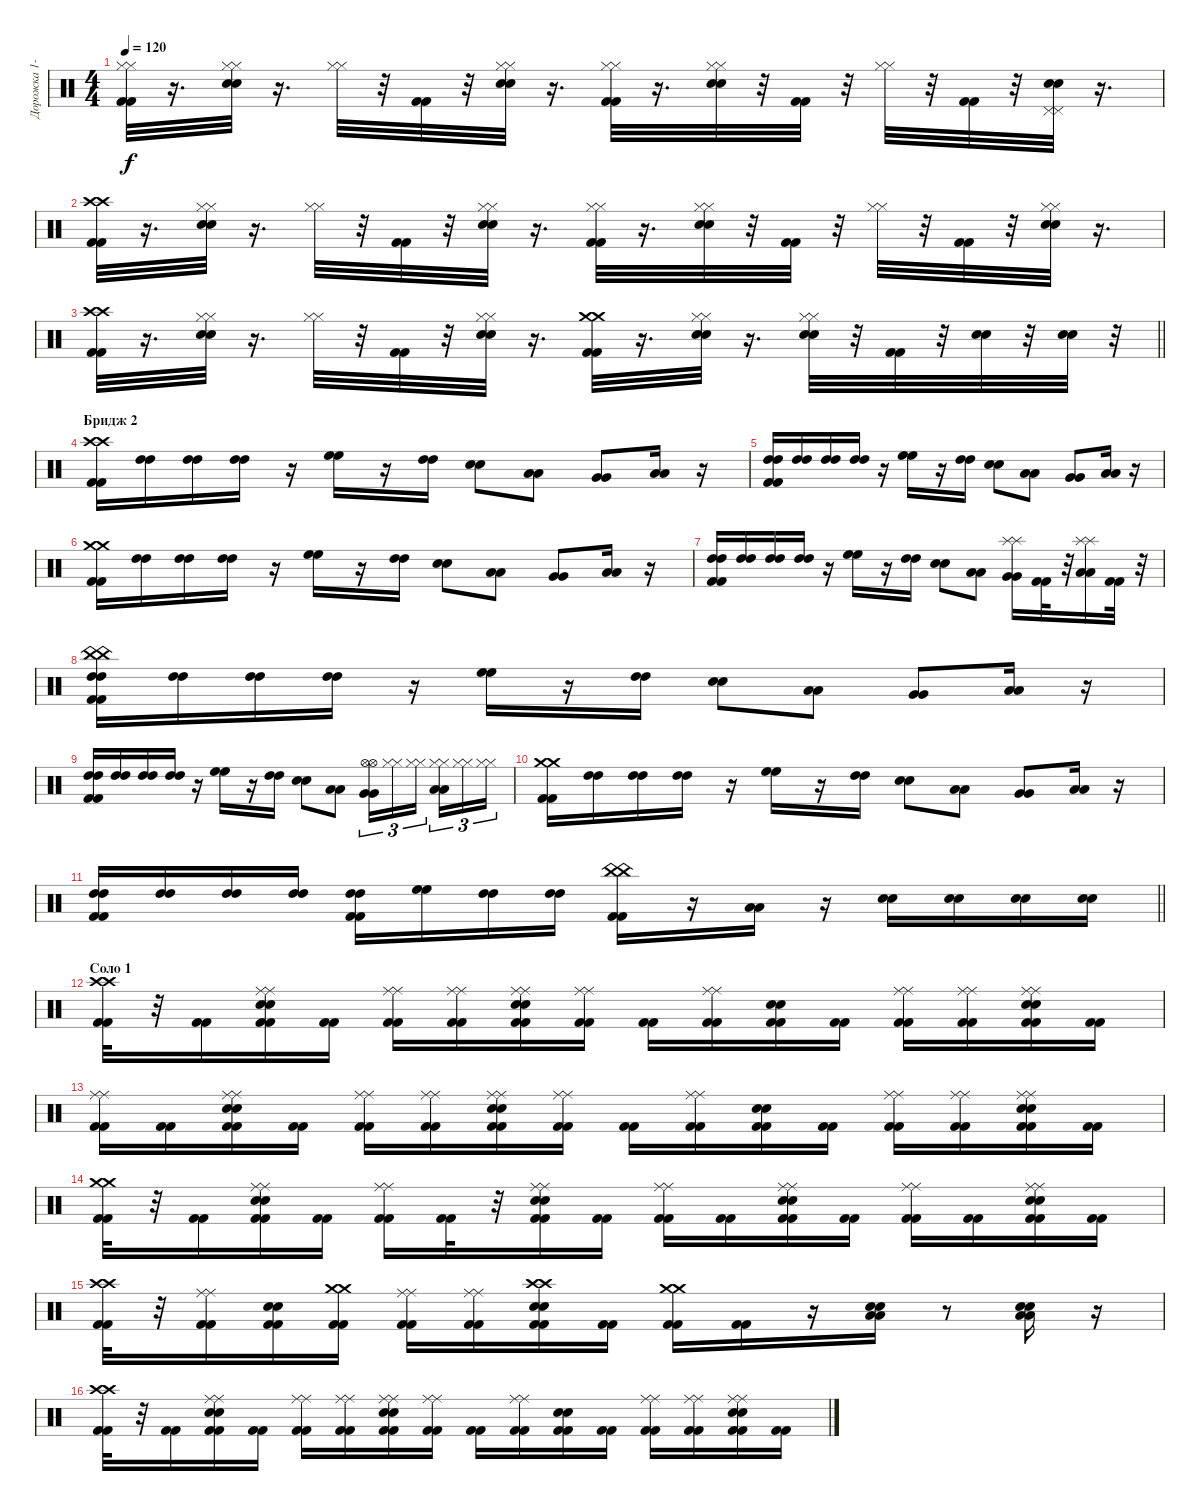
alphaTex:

\track ("Дорожка 1-2" "Дорожка 1-") {instrument percussion}
\staff {score}
\articulation defaults
\ts (4 4)
\tempo 120
\clef neutral
\ks c
("Kick (hit) 2" "Kick (hit) 2" "Hi-Hat (closed)" "Hi-Hat (closed)").32{dy f} r.16{d} ("Electric Snare (hit)" "Electric Snare (hit)" "Hi-Hat (closed)" "Hi-Hat (closed)").32 r.16{d} ("Hi-Hat (closed)" "Hi-Hat (closed)").32 r.32 ("Kick (hit) 2" "Kick (hit) 2").32 r.32 ("Electric Snare (hit)" "Electric Snare (hit)" "Hi-Hat (closed)" "Hi-Hat (closed)").32 r.16{d} ("Kick (hit) 2" "Kick (hit) 2" "Hi-Hat (closed)" "Hi-Hat (closed)").32 r.16{d} ("Electric Snare (hit)" "Electric Snare (hit)" "Hi-Hat (closed)" "Hi-Hat (closed)").32 r.32 ("Kick (hit) 2" "Kick (hit) 2").32 r.32 ("Hi-Hat (closed)" "Hi-Hat (closed)").32 r.32 ("Kick (hit) 2" "Kick (hit) 2").32 r.32 ("Electric Snare (hit)" "Electric Snare (hit)" "Pedal Hi-Hat (hit)" "Pedal Hi-Hat (hit)").32 r.16{d} |
("Kick (hit) 2" "Kick (hit) 2" "Crash high (hit)" "Crash high (hit)").32 r.16{d} ("Electric Snare (hit)" "Electric Snare (hit)" "Hi-Hat (closed)" "Hi-Hat (closed)").32 r.16{d} ("Hi-Hat (closed)" "Hi-Hat (closed)").32 r.32 ("Kick (hit) 2" "Kick (hit) 2").32 r.32 ("Electric Snare (hit)" "Electric Snare (hit)" "Hi-Hat (closed)" "Hi-Hat (closed)").32 r.16{d} ("Kick (hit) 2" "Kick (hit) 2" "Hi-Hat (closed)" "Hi-Hat (closed)").32 r.16{d} ("Electric Snare (hit)" "Electric Snare (hit)" "Hi-Hat (closed)" "Hi-Hat (closed)").32 r.32 ("Kick (hit) 2" "Kick (hit) 2").32 r.32 ("Hi-Hat (closed)" "Hi-Hat (closed)").32 r.32 ("Kick (hit) 2" "Kick (hit) 2").32 r.32 ("Electric Snare (hit)" "Electric Snare (hit)" "Hi-Hat (closed)" "Hi-Hat (closed)").32 r.16{d} |
\barLineRight lightlight
("Kick (hit) 2" "Kick (hit) 2" "Crash high (hit)" "Crash high (hit)").32 r.16{d} ("Electric Snare (hit)" "Electric Snare (hit)" "Hi-Hat (closed)" "Hi-Hat (closed)").32 r.16{d} ("Hi-Hat (closed)" "Hi-Hat (closed)").32 r.32 ("Kick (hit) 2" "Kick (hit) 2").32 r.32 ("Electric Snare (hit)" "Electric Snare (hit)" "Hi-Hat (closed)" "Hi-Hat (closed)").32 r.16{d} ("Kick (hit) 2" "Kick (hit) 2" "Crash medium (hit)" "Crash medium (hit)").32 r.16{d} ("Electric Snare (hit)" "Electric Snare (hit)" "Hi-Hat (closed)" "Hi-Hat (closed)").32 r.16{d} ("Electric Snare (hit)" "Electric Snare (hit)" "Hi-Hat (closed)" "Hi-Hat (closed)").32 r.32 ("Kick (hit) 2" "Kick (hit) 2").32 r.32 ("Electric Snare (hit)" "Electric Snare (hit)").32 r.32 ("Electric Snare (hit)" "Electric Snare (hit)").32 r.32 |
\section ("" "Бридж 2")
("Kick (hit) 2" "Kick (hit) 2" "Crash high (hit)" "Crash high (hit)").16 ("High Tom (hit)" "High Tom (hit)").16 ("High Tom (hit)" "High Tom (hit)").16 ("High Tom (hit)" "High Tom (hit)").16 r.16 ("High Floor Tom (hit)" "High Floor Tom (hit)").16 r.16 ("High Tom (hit)" "High Tom (hit)").16 ("Electric Snare (hit)" "Electric Snare (hit)").8 ("Low Tom (hit)" "Low Tom (hit)").8 ("Very Low Tom (hit)" "Very Low Tom (hit)").8 ("Low Floor Tom (hit)" "Low Floor Tom (hit)").16 r.16 |
("Kick (hit) 2" "Kick (hit) 2" "High Tom (hit)" "High Tom (hit)").16 ("High Tom (hit)" "High Tom (hit)").16 ("High Tom (hit)" "High Tom (hit)").16 ("High Tom (hit)" "High Tom (hit)").16 r.16 ("High Floor Tom (hit)" "High Floor Tom (hit)").16 r.16 ("High Tom (hit)" "High Tom (hit)").16 ("Electric Snare (hit)" "Electric Snare (hit)").8 ("Low Tom (hit)" "Low Tom (hit)").8 ("Very Low Tom (hit)" "Very Low Tom (hit)").8 ("Low Floor Tom (hit)" "Low Floor Tom (hit)").16 r.16 |
("Kick (hit) 2" "Kick (hit) 2" "Crash medium (hit)" "Crash medium (hit)").16 ("High Tom (hit)" "High Tom (hit)").16 ("High Tom (hit)" "High Tom (hit)").16 ("High Tom (hit)" "High Tom (hit)").16 r.16 ("High Floor Tom (hit)" "High Floor Tom (hit)").16 r.16 ("High Tom (hit)" "High Tom (hit)").16 ("Electric Snare (hit)" "Electric Snare (hit)").8 ("Low Tom (hit)" "Low Tom (hit)").8 ("Very Low Tom (hit)" "Very Low Tom (hit)").8 ("Low Floor Tom (hit)" "Low Floor Tom (hit)").16 r.16 |
("Kick (hit) 2" "Kick (hit) 2" "High Tom (hit)" "High Tom (hit)").16 ("High Tom (hit)" "High Tom (hit)").16 ("High Tom (hit)" "High Tom (hit)").16 ("High Tom (hit)" "High Tom (hit)").16 r.16 ("High Floor Tom (hit)" "High Floor Tom (hit)").16 r.16 ("High Tom (hit)" "High Tom (hit)").16 ("Electric Snare (hit)" "Electric Snare (hit)").8 ("Low Tom (hit)" "Low Tom (hit)").8 ("Very Low Tom (hit)" "Very Low Tom (hit)" "Splash (hit)" "Splash (hit)").16 ("Kick (hit) 2" "Kick (hit) 2").32 r.32 ("Low Floor Tom (hit)" "Low Floor Tom (hit)" "Splash (hit)" "Splash (hit)").16 ("Kick (hit) 2" "Kick (hit) 2").32 r.32 |
("Kick (hit) 2" "Kick (hit) 2" "High Tom (hit)" "High Tom (hit)" "China (hit)" "China (hit)").16 ("High Tom (hit)" "High Tom (hit)").16 ("High Tom (hit)" "High Tom (hit)").16 ("High Tom (hit)" "High Tom (hit)").16 r.16 ("High Floor Tom (hit)" "High Floor Tom (hit)").16 r.16 ("High Tom (hit)" "High Tom (hit)").16 ("Electric Snare (hit)" "Electric Snare (hit)").8 ("Low Tom (hit)" "Low Tom (hit)").8 ("Very Low Tom (hit)" "Very Low Tom (hit)").8 ("Low Floor Tom (hit)" "Low Floor Tom (hit)").16 r.16 |
("Kick (hit) 2" "Kick (hit) 2" "High Tom (hit)" "High Tom (hit)").16 ("High Tom (hit)" "High Tom (hit)").16 ("High Tom (hit)" "High Tom (hit)").16 ("High Tom (hit)" "High Tom (hit)").16 r.16 ("High Floor Tom (hit)" "High Floor Tom (hit)").16 r.16 ("High Tom (hit)" "High Tom (hit)").16 ("Electric Snare (hit)" "Electric Snare (hit)").8 ("Low Tom (hit)" "Low Tom (hit)").8 ("Very Low Tom (hit)" "Very Low Tom (hit)" "Hi-Hat (open)" "Hi-Hat (open)").16{tu (3 2)} ("Hi-Hat (closed)" "Hi-Hat (closed)").16{tu (3 2)} ("Hi-Hat (closed)" "Hi-Hat (closed)").16{tu (3 2) beam splitsecondary} ("Low Floor Tom (hit)" "Low Floor Tom (hit)" "Hi-Hat (closed)" "Hi-Hat (closed)").16{tu (3 2)} ("Hi-Hat (closed)" "Hi-Hat (closed)").16{tu (3 2)} ("Hi-Hat (closed)" "Hi-Hat (closed)").16{tu (3 2)} |
("Kick (hit) 2" "Kick (hit) 2" "Crash medium (hit)" "Crash medium (hit)").16 ("High Tom (hit)" "High Tom (hit)").16 ("High Tom (hit)" "High Tom (hit)").16 ("High Tom (hit)" "High Tom (hit)").16 r.16 ("High Floor Tom (hit)" "High Floor Tom (hit)").16 r.16 ("High Tom (hit)" "High Tom (hit)").16 ("Electric Snare (hit)" "Electric Snare (hit)").8 ("Low Tom (hit)" "Low Tom (hit)").8 ("Very Low Tom (hit)" "Very Low Tom (hit)").8 ("Low Floor Tom (hit)" "Low Floor Tom (hit)").16 r.16 |
\barLineRight lightlight
("Kick (hit) 2" "Kick (hit) 2" "High Tom (hit)" "High Tom (hit)").16 ("High Tom (hit)" "High Tom (hit)").16 ("High Tom (hit)" "High Tom (hit)").16 ("High Tom (hit)" "High Tom (hit)").16 ("Kick (hit) 2" "Kick (hit) 2" "High Tom (hit)" "High Tom (hit)").16 ("High Floor Tom (hit)" "High Floor Tom (hit)").16 ("High Tom (hit)" "High Tom (hit)").16 ("High Tom (hit)" "High Tom (hit)").16 ("Kick (hit) 2" "Kick (hit) 2" "China (hit)" "China (hit)").16 r.16 ("Low Tom (hit)" "Low Tom (hit)").16 r.16 ("Electric Snare (hit)" "Electric Snare (hit)").16 ("Electric Snare (hit)" "Electric Snare (hit)").16 ("Electric Snare (hit)" "Electric Snare (hit)").16 ("Electric Snare (hit)" "Electric Snare (hit)").16 |
\section ("" "Соло 1")
("Kick (hit) 2" "Kick (hit) 2" "Crash high (hit)" "Crash high (hit)").32 r.32 ("Kick (hit) 2" "Kick (hit) 2").16 ("Kick (hit) 2" "Kick (hit) 2" "Electric Snare (hit)" "Electric Snare (hit)" "Ride (middle)" "Ride (middle)").16 ("Kick (hit) 2" "Kick (hit) 2").16 ("Kick (hit) 2" "Kick (hit) 2" "Ride (middle)" "Ride (middle)").16 ("Kick (hit) 2" "Kick (hit) 2" "Ride (middle)" "Ride (middle)").16 ("Kick (hit) 2" "Kick (hit) 2" "Electric Snare (hit)" "Electric Snare (hit)" "Ride (middle)" "Ride (middle)").16 ("Kick (hit) 2" "Kick (hit) 2" "Ride (middle)" "Ride (middle)").16 ("Kick (hit) 2" "Kick (hit) 2").16 ("Kick (hit) 2" "Kick (hit) 2" "Ride (middle)" "Ride (middle)").16 ("Kick (hit) 2" "Kick (hit) 2" "Electric Snare (hit)" "Electric Snare (hit)").16 ("Kick (hit) 2" "Kick (hit) 2").16 ("Kick (hit) 2" "Kick (hit) 2" "Ride (middle)" "Ride (middle)").16 ("Kick (hit) 2" "Kick (hit) 2" "Ride (middle)" "Ride (middle)").16 ("Kick (hit) 2" "Kick (hit) 2" "Electric Snare (hit)" "Electric Snare (hit)" "Ride (middle)" "Ride (middle)").16 ("Kick (hit) 2" "Kick (hit) 2").16 |
("Kick (hit) 2" "Kick (hit) 2" "Ride (middle)" "Ride (middle)").16 ("Kick (hit) 2" "Kick (hit) 2").16 ("Kick (hit) 2" "Kick (hit) 2" "Electric Snare (hit)" "Electric Snare (hit)" "Ride (middle)" "Ride (middle)").16 ("Kick (hit) 2" "Kick (hit) 2").16 ("Kick (hit) 2" "Kick (hit) 2" "Ride (middle)" "Ride (middle)").16 ("Kick (hit) 2" "Kick (hit) 2" "Ride (middle)" "Ride (middle)").16 ("Kick (hit) 2" "Kick (hit) 2" "Electric Snare (hit)" "Electric Snare (hit)" "Ride (middle)" "Ride (middle)").16 ("Kick (hit) 2" "Kick (hit) 2" "Ride (middle)" "Ride (middle)").16 ("Kick (hit) 2" "Kick (hit) 2").16 ("Kick (hit) 2" "Kick (hit) 2" "Ride (middle)" "Ride (middle)").16 ("Kick (hit) 2" "Kick (hit) 2" "Electric Snare (hit)" "Electric Snare (hit)").16 ("Kick (hit) 2" "Kick (hit) 2").16 ("Kick (hit) 2" "Kick (hit) 2" "Ride (middle)" "Ride (middle)").16 ("Kick (hit) 2" "Kick (hit) 2" "Ride (middle)" "Ride (middle)").16 ("Kick (hit) 2" "Kick (hit) 2" "Electric Snare (hit)" "Electric Snare (hit)" "Ride (middle)" "Ride (middle)").16 ("Kick (hit) 2" "Kick (hit) 2").16 |
("Kick (hit) 2" "Kick (hit) 2" "Crash medium (hit)" "Crash medium (hit)").32 r.32 ("Kick (hit) 2" "Kick (hit) 2").16 ("Kick (hit) 2" "Kick (hit) 2" "Electric Snare (hit)" "Electric Snare (hit)" "Ride (middle)" "Ride (middle)").16 ("Kick (hit) 2" "Kick (hit) 2").16 ("Kick (hit) 2" "Kick (hit) 2" "Ride (middle)" "Ride (middle)").16 ("Kick (hit) 2" "Kick (hit) 2").32 r.32 ("Kick (hit) 2" "Kick (hit) 2" "Electric Snare (hit)" "Electric Snare (hit)" "Ride (middle)" "Ride (middle)").16 ("Kick (hit) 2" "Kick (hit) 2").16 ("Kick (hit) 2" "Kick (hit) 2" "Ride (middle)" "Ride (middle)").16 ("Kick (hit) 2" "Kick (hit) 2").16 ("Kick (hit) 2" "Kick (hit) 2" "Electric Snare (hit)" "Electric Snare (hit)" "Ride (middle)" "Ride (middle)").16 ("Kick (hit) 2" "Kick (hit) 2").16 ("Kick (hit) 2" "Kick (hit) 2" "Ride (middle)" "Ride (middle)").16 ("Kick (hit) 2" "Kick (hit) 2").16 ("Kick (hit) 2" "Kick (hit) 2" "Electric Snare (hit)" "Electric Snare (hit)" "Ride (middle)" "Ride (middle)").16 ("Kick (hit) 2" "Kick (hit) 2").16 |
("Kick (hit) 2" "Kick (hit) 2" "Crash high (hit)" "Crash high (hit)").32 r.32 ("Kick (hit) 2" "Kick (hit) 2" "Ride (middle)" "Ride (middle)").16 ("Kick (hit) 2" "Kick (hit) 2" "Electric Snare (hit)" "Electric Snare (hit)").16 ("Kick (hit) 2" "Kick (hit) 2" "Crash medium (hit)" "Crash medium (hit)").16 ("Kick (hit) 2" "Kick (hit) 2" "Ride (middle)" "Ride (middle)").16 ("Kick (hit) 2" "Kick (hit) 2" "Ride (middle)" "Ride (middle)").16 ("Kick (hit) 2" "Kick (hit) 2" "Electric Snare (hit)" "Electric Snare (hit)" "Crash high (hit)" "Crash high (hit)").16 ("Kick (hit) 2" "Kick (hit) 2").16 ("Kick (hit) 2" "Kick (hit) 2" "Crash medium (hit)" "Crash medium (hit)").16 ("Kick (hit) 2" "Kick (hit) 2").16 r.16 ("Electric Snare (hit)" "Electric Snare (hit)" "Low Floor Tom (hit)" "Low Floor Tom (hit)").16 r.8 ("Electric Snare (hit)" "Electric Snare (hit)" "Low Floor Tom (hit)" "Low Floor Tom (hit)").16 r.16 |
("Kick (hit) 2" "Kick (hit) 2" "Crash high (hit)" "Crash high (hit)").32 r.32 ("Kick (hit) 2" "Kick (hit) 2").16 ("Kick (hit) 2" "Kick (hit) 2" "Electric Snare (hit)" "Electric Snare (hit)" "Ride (middle)" "Ride (middle)").16 ("Kick (hit) 2" "Kick (hit) 2").16 ("Kick (hit) 2" "Kick (hit) 2" "Ride (middle)" "Ride (middle)").16 ("Kick (hit) 2" "Kick (hit) 2" "Ride (middle)" "Ride (middle)").16 ("Kick (hit) 2" "Kick (hit) 2" "Electric Snare (hit)" "Electric Snare (hit)" "Ride (middle)" "Ride (middle)").16 ("Kick (hit) 2" "Kick (hit) 2" "Ride (middle)" "Ride (middle)").16 ("Kick (hit) 2" "Kick (hit) 2").16 ("Kick (hit) 2" "Kick (hit) 2" "Ride (middle)" "Ride (middle)").16 ("Kick (hit) 2" "Kick (hit) 2" "Electric Snare (hit)" "Electric Snare (hit)").16 ("Kick (hit) 2" "Kick (hit) 2").16 ("Kick (hit) 2" "Kick (hit) 2" "Ride (middle)" "Ride (middle)").16 ("Kick (hit) 2" "Kick (hit) 2" "Ride (middle)" "Ride (middle)").16 ("Kick (hit) 2" "Kick (hit) 2" "Electric Snare (hit)" "Electric Snare (hit)" "Ride (middle)" "Ride (middle)").16 ("Kick (hit) 2" "Kick (hit) 2").16
